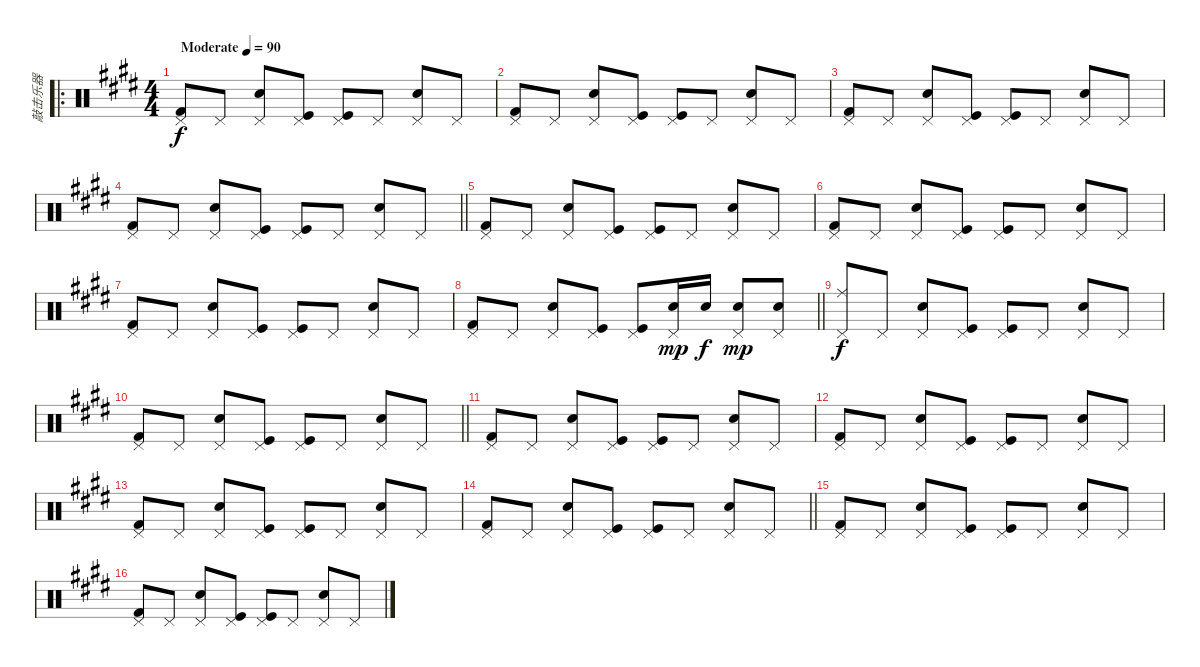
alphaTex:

\track ("敲击乐器" "敲击乐器") {solo instrument percussion}
\staff {score}
\articulation defaults
\ro
\ts (4 4)
\tempo (90 "Moderate")
\clef neutral
\ks e
("Kick (hit) 2" "Pedal Hi-Hat (hit)").8{dy f} "Pedal Hi-Hat (hit)".8 ("Pedal Hi-Hat (hit)" "Snare (hit) 2").8 ("Pedal Hi-Hat (hit)" "Kick (hit)").8 ("Kick (hit)" "Pedal Hi-Hat (hit)").8 "Pedal Hi-Hat (hit)".8 ("Snare (hit) 2" "Pedal Hi-Hat (hit)").8 "Pedal Hi-Hat (hit)".8 |
("Kick (hit) 2" "Pedal Hi-Hat (hit)").8 "Pedal Hi-Hat (hit)".8 ("Pedal Hi-Hat (hit)" "Snare (hit) 2").8 ("Pedal Hi-Hat (hit)" "Kick (hit)").8 ("Kick (hit)" "Pedal Hi-Hat (hit)").8 "Pedal Hi-Hat (hit)".8 ("Snare (hit) 2" "Pedal Hi-Hat (hit)").8 "Pedal Hi-Hat (hit)".8 |
("Kick (hit) 2" "Pedal Hi-Hat (hit)").8 "Pedal Hi-Hat (hit)".8 ("Pedal Hi-Hat (hit)" "Snare (hit) 2").8 ("Pedal Hi-Hat (hit)" "Kick (hit)").8 ("Kick (hit)" "Pedal Hi-Hat (hit)").8 "Pedal Hi-Hat (hit)".8 ("Snare (hit) 2" "Pedal Hi-Hat (hit)").8 "Pedal Hi-Hat (hit)".8 |
\barLineRight lightlight
("Kick (hit) 2" "Pedal Hi-Hat (hit)").8 "Pedal Hi-Hat (hit)".8 ("Pedal Hi-Hat (hit)" "Snare (hit) 2").8 ("Pedal Hi-Hat (hit)" "Kick (hit)").8 ("Kick (hit)" "Pedal Hi-Hat (hit)").8 "Pedal Hi-Hat (hit)".8 ("Snare (hit) 2" "Pedal Hi-Hat (hit)").8 "Pedal Hi-Hat (hit)".8 |
\section ("" "")
("Kick (hit) 2" "Pedal Hi-Hat (hit)").8 "Pedal Hi-Hat (hit)".8 ("Pedal Hi-Hat (hit)" "Snare (hit) 2").8 ("Pedal Hi-Hat (hit)" "Kick (hit)").8 ("Kick (hit)" "Pedal Hi-Hat (hit)").8 "Pedal Hi-Hat (hit)".8 ("Snare (hit) 2" "Pedal Hi-Hat (hit)").8 "Pedal Hi-Hat (hit)".8 |
("Kick (hit) 2" "Pedal Hi-Hat (hit)").8 "Pedal Hi-Hat (hit)".8 ("Pedal Hi-Hat (hit)" "Snare (hit) 2").8 ("Pedal Hi-Hat (hit)" "Kick (hit)").8 ("Kick (hit)" "Pedal Hi-Hat (hit)").8 "Pedal Hi-Hat (hit)".8 ("Snare (hit) 2" "Pedal Hi-Hat (hit)").8 "Pedal Hi-Hat (hit)".8 |
("Kick (hit) 2" "Pedal Hi-Hat (hit)").8 "Pedal Hi-Hat (hit)".8 ("Pedal Hi-Hat (hit)" "Snare (hit) 2").8 ("Pedal Hi-Hat (hit)" "Kick (hit)").8 ("Kick (hit)" "Pedal Hi-Hat (hit)").8 "Pedal Hi-Hat (hit)".8 ("Snare (hit) 2" "Pedal Hi-Hat (hit)").8 "Pedal Hi-Hat (hit)".8 |
\barLineRight lightlight
("Kick (hit) 2" "Pedal Hi-Hat (hit)").8 "Pedal Hi-Hat (hit)".8 ("Pedal Hi-Hat (hit)" "Snare (hit) 2").8 ("Pedal Hi-Hat (hit)" "Kick (hit)").8 ("Kick (hit)" "Pedal Hi-Hat (hit)").8 ("Pedal Hi-Hat (hit)" "Snare (hit) 2").16{dy mp} "Snare (hit) 2".16{dy f} ("Pedal Hi-Hat (hit)" "Snare (hit) 2").8{dy mp} ("Snare (hit) 2" "Pedal Hi-Hat (hit)").8 |
\section ("" "")
("Ride (middle)" "Pedal Hi-Hat (hit)").8{dy f} "Pedal Hi-Hat (hit)".8 ("Pedal Hi-Hat (hit)" "Snare (hit) 2").8 ("Pedal Hi-Hat (hit)" "Kick (hit)").8 ("Kick (hit)" "Pedal Hi-Hat (hit)").8 "Pedal Hi-Hat (hit)".8 ("Snare (hit) 2" "Pedal Hi-Hat (hit)").8 "Pedal Hi-Hat (hit)".8 |
\barLineRight lightlight
("Kick (hit) 2" "Pedal Hi-Hat (hit)").8 "Pedal Hi-Hat (hit)".8 ("Pedal Hi-Hat (hit)" "Snare (hit) 2").8 ("Pedal Hi-Hat (hit)" "Kick (hit)").8 ("Kick (hit)" "Pedal Hi-Hat (hit)").8 "Pedal Hi-Hat (hit)".8 ("Snare (hit) 2" "Pedal Hi-Hat (hit)").8 "Pedal Hi-Hat (hit)".8 |
("Kick (hit) 2" "Pedal Hi-Hat (hit)").8 "Pedal Hi-Hat (hit)".8 ("Pedal Hi-Hat (hit)" "Snare (hit) 2").8 ("Pedal Hi-Hat (hit)" "Kick (hit)").8 ("Kick (hit)" "Pedal Hi-Hat (hit)").8 "Pedal Hi-Hat (hit)".8 ("Snare (hit) 2" "Pedal Hi-Hat (hit)").8 "Pedal Hi-Hat (hit)".8 |
("Kick (hit) 2" "Pedal Hi-Hat (hit)").8 "Pedal Hi-Hat (hit)".8 ("Pedal Hi-Hat (hit)" "Snare (hit) 2").8 ("Pedal Hi-Hat (hit)" "Kick (hit)").8 ("Kick (hit)" "Pedal Hi-Hat (hit)").8 "Pedal Hi-Hat (hit)".8 ("Snare (hit) 2" "Pedal Hi-Hat (hit)").8 "Pedal Hi-Hat (hit)".8 |
("Kick (hit) 2" "Pedal Hi-Hat (hit)").8 "Pedal Hi-Hat (hit)".8 ("Pedal Hi-Hat (hit)" "Snare (hit) 2").8 ("Pedal Hi-Hat (hit)" "Kick (hit)").8 ("Kick (hit)" "Pedal Hi-Hat (hit)").8 "Pedal Hi-Hat (hit)".8 ("Snare (hit) 2" "Pedal Hi-Hat (hit)").8 "Pedal Hi-Hat (hit)".8 |
\barLineRight lightlight
("Kick (hit) 2" "Pedal Hi-Hat (hit)").8 "Pedal Hi-Hat (hit)".8 ("Pedal Hi-Hat (hit)" "Snare (hit) 2").8 ("Pedal Hi-Hat (hit)" "Kick (hit)").8 ("Kick (hit)" "Pedal Hi-Hat (hit)").8 "Pedal Hi-Hat (hit)".8 ("Snare (hit) 2" "Pedal Hi-Hat (hit)").8 "Pedal Hi-Hat (hit)".8 |
("Kick (hit) 2" "Pedal Hi-Hat (hit)").8 "Pedal Hi-Hat (hit)".8 ("Pedal Hi-Hat (hit)" "Snare (hit) 2").8 ("Pedal Hi-Hat (hit)" "Kick (hit)").8 ("Kick (hit)" "Pedal Hi-Hat (hit)").8 "Pedal Hi-Hat (hit)".8 ("Snare (hit) 2" "Pedal Hi-Hat (hit)").8 "Pedal Hi-Hat (hit)".8 |
("Kick (hit) 2" "Pedal Hi-Hat (hit)").8 "Pedal Hi-Hat (hit)".8 ("Pedal Hi-Hat (hit)" "Snare (hit) 2").8 ("Pedal Hi-Hat (hit)" "Kick (hit)").8 ("Kick (hit)" "Pedal Hi-Hat (hit)").8 "Pedal Hi-Hat (hit)".8 ("Snare (hit) 2" "Pedal Hi-Hat (hit)").8 "Pedal Hi-Hat (hit)".8
